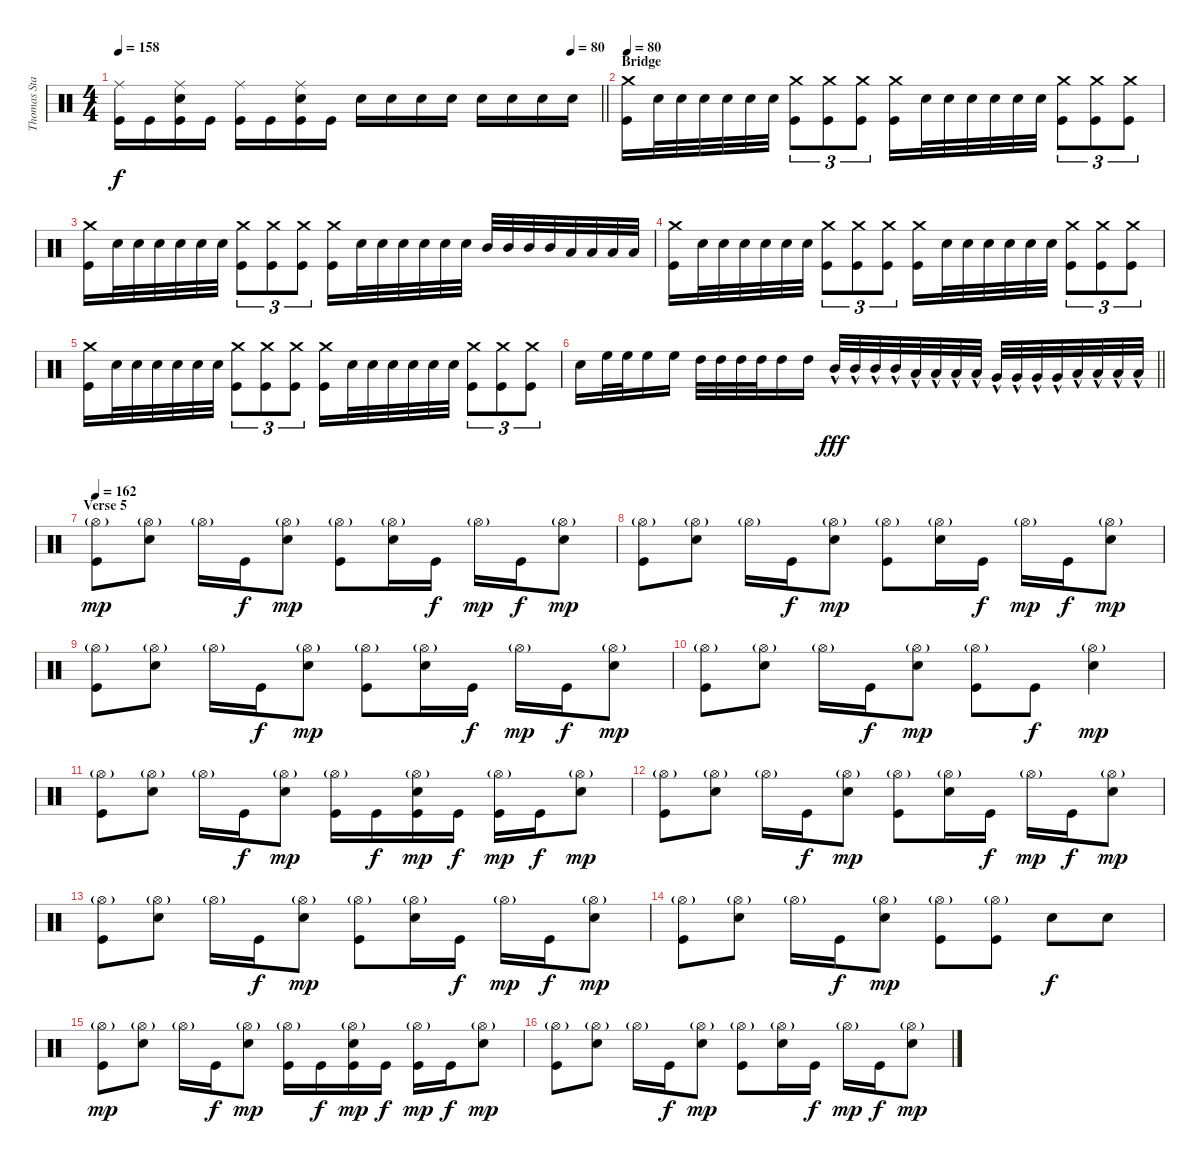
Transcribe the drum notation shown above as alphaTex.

\track ("Thomas Stauch" "Thomas Sta") {instrument percussion}
\staff {score}
\articulation defaults
\ts (4 4)
\tempo 158
\tempo (80 0.9375)
\clef neutral
\barLineRight lightlight
\ks c
("Ride (middle)" "Kick (hit)").16{dy f} "Kick (hit)".16 ("Ride (middle)" "Electric Snare (hit)" "Kick (hit)").16 "Kick (hit)".16 ("Ride (middle)" "Kick (hit)").16 "Kick (hit)".16 ("Ride (middle)" "Electric Snare (hit)" "Kick (hit)").16 "Kick (hit)".16 "Electric Snare (hit)".16 "Electric Snare (hit)".16 "Electric Snare (hit)".16 "Electric Snare (hit)".16 "Electric Snare (hit)".16 "Electric Snare (hit)".16 "Electric Snare (hit)".16 "Electric Snare (hit)".16 |
\section ("" "Bridge")
\tempo 80
("Crash medium (hit)" "Kick (hit)").16 "Electric Snare (hit)".32 "Electric Snare (hit)".32 "Electric Snare (hit)".32 "Electric Snare (hit)".32 "Electric Snare (hit)".32 "Electric Snare (hit)".32 ("Crash medium (hit)" "Kick (hit)").8{tu (3 2)} ("Crash medium (hit)" "Kick (hit)").8{tu (3 2)} ("Crash medium (hit)" "Kick (hit)").8{tu (3 2)} ("Crash medium (hit)" "Kick (hit)").16 "Electric Snare (hit)".32 "Electric Snare (hit)".32 "Electric Snare (hit)".32 "Electric Snare (hit)".32 "Electric Snare (hit)".32 "Electric Snare (hit)".32 ("Crash medium (hit)" "Kick (hit)").8{tu (3 2)} ("Crash medium (hit)" "Kick (hit)").8{tu (3 2)} ("Crash medium (hit)" "Kick (hit)").8{tu (3 2)} |
("Crash medium (hit)" "Kick (hit)").16 "Electric Snare (hit)".32 "Electric Snare (hit)".32 "Electric Snare (hit)".32 "Electric Snare (hit)".32 "Electric Snare (hit)".32 "Electric Snare (hit)".32 ("Crash medium (hit)" "Kick (hit)").8{tu (3 2)} ("Crash medium (hit)" "Kick (hit)").8{tu (3 2)} ("Crash medium (hit)" "Kick (hit)").8{tu (3 2)} ("Crash medium (hit)" "Kick (hit)").16 "Electric Snare (hit)".32 "Electric Snare (hit)".32 "Electric Snare (hit)".32 "Electric Snare (hit)".32 "Electric Snare (hit)".32 "Electric Snare (hit)".32 "Mid Tom (hit)".32 "Mid Tom (hit)".32 "Mid Tom (hit)".32 "Mid Tom (hit)".32 "Low Tom (hit)".32 "Low Tom (hit)".32 "Low Tom (hit)".32 "Low Tom (hit)".32 |
("Crash medium (hit)" "Kick (hit)").16 "Electric Snare (hit)".32 "Electric Snare (hit)".32 "Electric Snare (hit)".32 "Electric Snare (hit)".32 "Electric Snare (hit)".32 "Electric Snare (hit)".32 ("Crash medium (hit)" "Kick (hit)").8{tu (3 2)} ("Crash medium (hit)" "Kick (hit)").8{tu (3 2)} ("Crash medium (hit)" "Kick (hit)").8{tu (3 2)} ("Crash medium (hit)" "Kick (hit)").16 "Electric Snare (hit)".32 "Electric Snare (hit)".32 "Electric Snare (hit)".32 "Electric Snare (hit)".32 "Electric Snare (hit)".32 "Electric Snare (hit)".32 ("Crash medium (hit)" "Kick (hit)").8{tu (3 2)} ("Crash medium (hit)" "Kick (hit)").8{tu (3 2)} ("Crash medium (hit)" "Kick (hit)").8{tu (3 2)} |
("Crash medium (hit)" "Kick (hit)").16 "Electric Snare (hit)".32 "Electric Snare (hit)".32 "Electric Snare (hit)".32 "Electric Snare (hit)".32 "Electric Snare (hit)".32 "Electric Snare (hit)".32 ("Crash medium (hit)" "Kick (hit)").8{tu (3 2)} ("Crash medium (hit)" "Kick (hit)").8{tu (3 2)} ("Crash medium (hit)" "Kick (hit)").8{tu (3 2)} ("Crash medium (hit)" "Kick (hit)").16 "Electric Snare (hit)".32 "Electric Snare (hit)".32 "Electric Snare (hit)".32 "Electric Snare (hit)".32 "Electric Snare (hit)".32 "Electric Snare (hit)".32 ("Crash medium (hit)" "Kick (hit)").8{tu (3 2)} ("Crash medium (hit)" "Kick (hit)").8{tu (3 2)} ("Crash medium (hit)" "Kick (hit)").8{tu (3 2)} |
\barLineRight lightlight "Electric Snare (hit)".16 "High Floor Tom (hit)".32 "High Floor Tom (hit)".32 "High Floor Tom (hit)".16 "High Floor Tom (hit)".16 "High Tom (hit)".32 "High Tom (hit)".32 "High Tom (hit)".32 "High Tom (hit)".32 "High Tom (hit)".16 "High Tom (hit)".16 "Mid Tom (hit)"{hac}.32{dy fff} "Mid Tom (hit)"{hac}.32 "Mid Tom (hit)"{hac}.32 "Mid Tom (hit)"{hac}.32 "Low Tom (hit)"{hac}.32 "Low Tom (hit)"{hac}.32 "Low Tom (hit)"{hac}.32 "Low Tom (hit)"{hac}.32 "Very Low Tom (hit)"{hac}.32 "Very Low Tom (hit)"{hac}.32 "Very Low Tom (hit)"{hac}.32 "Very Low Tom (hit)"{hac}.32 "Low Floor Tom (hit)"{hac}.32 "Low Floor Tom (hit)"{hac}.32 "Low Floor Tom (hit)"{hac}.32 "Low Floor Tom (hit)"{hac}.32
|
\section ("" "Verse 5")
\tempo 162
("Hi-Hat (open)"{g} "Kick (hit)").8{dy mp} ("Hi-Hat (open)"{g} "Electric Snare (hit)").8 "Hi-Hat (open)"{g}.16 "Kick (hit)".16{dy f} ("Hi-Hat (open)"{g} "Electric Snare (hit)").8{dy mp} ("Hi-Hat (open)"{g} "Kick (hit)").8 ("Hi-Hat (open)"{g} "Electric Snare (hit)").16 "Kick (hit)".16{dy f} "Hi-Hat (open)"{g}.16{dy mp} "Kick (hit)".16{dy f} ("Hi-Hat (open)"{g} "Electric Snare (hit)").8{dy mp} |
("Hi-Hat (open)"{g} "Kick (hit)").8 ("Hi-Hat (open)"{g} "Electric Snare (hit)").8 "Hi-Hat (open)"{g}.16 "Kick (hit)".16{dy f} ("Hi-Hat (open)"{g} "Electric Snare (hit)").8{dy mp} ("Hi-Hat (open)"{g} "Kick (hit)").8 ("Hi-Hat (open)"{g} "Electric Snare (hit)").16 "Kick (hit)".16{dy f} "Hi-Hat (open)"{g}.16{dy mp} "Kick (hit)".16{dy f} ("Hi-Hat (open)"{g} "Electric Snare (hit)").8{dy mp} |
("Hi-Hat (open)"{g} "Kick (hit)").8 ("Hi-Hat (open)"{g} "Electric Snare (hit)").8 "Hi-Hat (open)"{g}.16 "Kick (hit)".16{dy f} ("Hi-Hat (open)"{g} "Electric Snare (hit)").8{dy mp} ("Hi-Hat (open)"{g} "Kick (hit)").8 ("Hi-Hat (open)"{g} "Electric Snare (hit)").16 "Kick (hit)".16{dy f} "Hi-Hat (open)"{g}.16{dy mp} "Kick (hit)".16{dy f} ("Hi-Hat (open)"{g} "Electric Snare (hit)").8{dy mp} |
("Hi-Hat (open)"{g} "Kick (hit)").8 ("Hi-Hat (open)"{g} "Electric Snare (hit)").8 "Hi-Hat (open)"{g}.16 "Kick (hit)".16{dy f} ("Hi-Hat (open)"{g} "Electric Snare (hit)").8{dy mp} ("Hi-Hat (open)"{g} "Kick (hit)").8 "Kick (hit)".8{dy f} ("Hi-Hat (open)"{g} "Electric Snare (hit)").4{dy mp} |
("Hi-Hat (open)"{g} "Kick (hit)").8 ("Hi-Hat (open)"{g} "Electric Snare (hit)").8 "Hi-Hat (open)"{g}.16 "Kick (hit)".16{dy f} ("Hi-Hat (open)"{g} "Electric Snare (hit)").8{dy mp} ("Hi-Hat (open)"{g} "Kick (hit)").16 "Kick (hit)".16{dy f} ("Hi-Hat (open)"{g} "Electric Snare (hit)" "Kick (hit)").16{dy mp} "Kick (hit)".16{dy f} ("Hi-Hat (open)"{g} "Kick (hit)").16{dy mp} "Kick (hit)".16{dy f} ("Hi-Hat (open)"{g} "Electric Snare (hit)").8{dy mp} |
("Hi-Hat (open)"{g} "Kick (hit)").8 ("Hi-Hat (open)"{g} "Electric Snare (hit)").8 "Hi-Hat (open)"{g}.16 "Kick (hit)".16{dy f} ("Hi-Hat (open)"{g} "Electric Snare (hit)").8{dy mp} ("Hi-Hat (open)"{g} "Kick (hit)").8 ("Hi-Hat (open)"{g} "Electric Snare (hit)").16 "Kick (hit)".16{dy f} "Hi-Hat (open)"{g}.16{dy mp} "Kick (hit)".16{dy f} ("Hi-Hat (open)"{g} "Electric Snare (hit)").8{dy mp} |
("Hi-Hat (open)"{g} "Kick (hit)").8 ("Hi-Hat (open)"{g} "Electric Snare (hit)").8 "Hi-Hat (open)"{g}.16 "Kick (hit)".16{dy f} ("Hi-Hat (open)"{g} "Electric Snare (hit)").8{dy mp} ("Hi-Hat (open)"{g} "Kick (hit)").8 ("Hi-Hat (open)"{g} "Electric Snare (hit)").16 "Kick (hit)".16{dy f} "Hi-Hat (open)"{g}.16{dy mp} "Kick (hit)".16{dy f} ("Hi-Hat (open)"{g} "Electric Snare (hit)").8{dy mp} |
("Hi-Hat (open)"{g} "Kick (hit)").8 ("Hi-Hat (open)"{g} "Electric Snare (hit)").8 "Hi-Hat (open)"{g}.16 "Kick (hit)".16{dy f} ("Hi-Hat (open)"{g} "Electric Snare (hit)").8{dy mp} ("Hi-Hat (open)"{g} "Kick (hit)").8 ("Hi-Hat (open)"{g} "Kick (hit)").8 "Electric Snare (hit)".8{dy f} "Electric Snare (hit)".8 |
("Hi-Hat (open)"{g} "Kick (hit)").8{dy mp} ("Hi-Hat (open)"{g} "Electric Snare (hit)").8 "Hi-Hat (open)"{g}.16 "Kick (hit)".16{dy f} ("Hi-Hat (open)"{g} "Electric Snare (hit)").8{dy mp} ("Hi-Hat (open)"{g} "Kick (hit)").16 "Kick (hit)".16{dy f} ("Hi-Hat (open)"{g} "Electric Snare (hit)" "Kick (hit)").16{dy mp} "Kick (hit)".16{dy f} ("Hi-Hat (open)"{g} "Kick (hit)").16{dy mp} "Kick (hit)".16{dy f} ("Hi-Hat (open)"{g} "Electric Snare (hit)").8{dy mp} |
("Hi-Hat (open)"{g} "Kick (hit)").8 ("Hi-Hat (open)"{g} "Electric Snare (hit)").8 "Hi-Hat (open)"{g}.16 "Kick (hit)".16{dy f} ("Hi-Hat (open)"{g} "Electric Snare (hit)").8{dy mp} ("Hi-Hat (open)"{g} "Kick (hit)").8 ("Hi-Hat (open)"{g} "Electric Snare (hit)").16 "Kick (hit)".16{dy f} "Hi-Hat (open)"{g}.16{dy mp} "Kick (hit)".16{dy f} ("Hi-Hat (open)"{g} "Electric Snare (hit)").8{dy mp}
